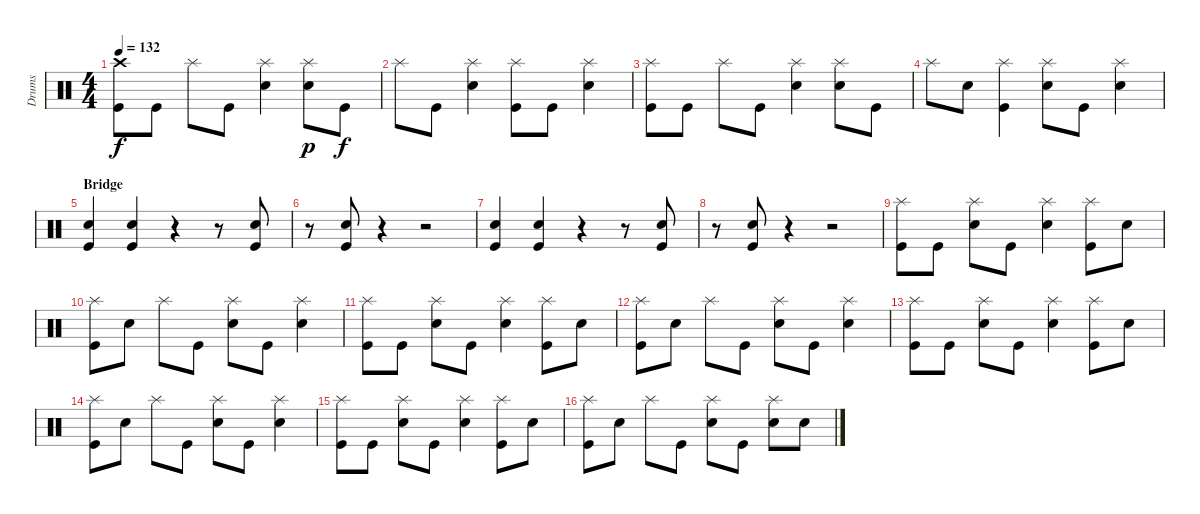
\track ("Drums" "Drums") {instrument percussion}
\staff {score}
\articulation defaults
\ts (4 4)
\tempo 132
\clef neutral
\ks c
("Crash high (hit)" "Kick (hit)").8{dy f} "Kick (hit)".8 "Splash (hit)".8 "Kick (hit)".8 ("Snare (hit) 2" "Splash (hit)").4 ("Snare (hit) 2" "Splash (hit)").8{dy p} "Kick (hit)".8{dy f} |
"Splash (hit)".8 "Kick (hit)".8 ("Snare (hit) 2" "Splash (hit)").4 ("Splash (hit)" "Kick (hit)").8 "Kick (hit)".8 ("Snare (hit) 2" "Splash (hit)").4 |
("Splash (hit)" "Kick (hit)").8 "Kick (hit)".8 "Splash (hit)".8 "Kick (hit)".8 ("Snare (hit) 2" "Splash (hit)").4 ("Snare (hit) 2" "Splash (hit)").8 "Kick (hit)".8 |
"Splash (hit)".8 "Snare (hit) 2".8 ("Splash (hit)" "Kick (hit)").4 ("Snare (hit) 2" "Splash (hit)").8 "Kick (hit)".8 ("Snare (hit) 2" "Splash (hit)").4 |
\section ("" "Bridge")
("Snare (hit) 2" "Kick (hit)").4 ("Snare (hit) 2" "Kick (hit)").4 r.4 r.8 ("Snare (hit) 2" "Kick (hit)").8 |
r.8 ("Snare (hit) 2" "Kick (hit)").8 r.4 r.2 |
("Snare (hit) 2" "Kick (hit)").4 ("Snare (hit) 2" "Kick (hit)").4 r.4 r.8 ("Snare (hit) 2" "Kick (hit)").8 |
r.8 ("Snare (hit) 2" "Kick (hit)").8 r.4 r.2 |
("Splash (hit)" "Kick (hit)").8 "Kick (hit)".8 ("Snare (hit) 2" "Splash (hit)").8 "Kick (hit)".8 ("Snare (hit) 2" "Splash (hit)").4 ("Splash (hit)" "Kick (hit)").8 "Snare (hit) 2".8 |
("Splash (hit)" "Kick (hit)").8 "Snare (hit) 2".8 "Splash (hit)".8 "Kick (hit)".8 ("Snare (hit) 2" "Splash (hit)").8 "Kick (hit)".8 ("Snare (hit) 2" "Splash (hit)").4 |
("Splash (hit)" "Kick (hit)").8 "Kick (hit)".8 ("Snare (hit) 2" "Splash (hit)").8 "Kick (hit)".8 ("Snare (hit) 2" "Splash (hit)").4 ("Splash (hit)" "Kick (hit)").8 "Snare (hit) 2".8 |
("Splash (hit)" "Kick (hit)").8 "Snare (hit) 2".8 "Splash (hit)".8 "Kick (hit)".8 ("Snare (hit) 2" "Splash (hit)").8 "Kick (hit)".8 ("Snare (hit) 2" "Splash (hit)").4 |
("Splash (hit)" "Kick (hit)").8 "Kick (hit)".8 ("Snare (hit) 2" "Splash (hit)").8 "Kick (hit)".8 ("Snare (hit) 2" "Splash (hit)").4 ("Splash (hit)" "Kick (hit)").8 "Snare (hit) 2".8 |
("Splash (hit)" "Kick (hit)").8 "Snare (hit) 2".8 "Splash (hit)".8 "Kick (hit)".8 ("Snare (hit) 2" "Splash (hit)").8 "Kick (hit)".8 ("Snare (hit) 2" "Splash (hit)").4 |
("Splash (hit)" "Kick (hit)").8 "Kick (hit)".8 ("Snare (hit) 2" "Splash (hit)").8 "Kick (hit)".8 ("Snare (hit) 2" "Splash (hit)").4 ("Splash (hit)" "Kick (hit)").8 "Snare (hit) 2".8 |
("Splash (hit)" "Kick (hit)").8 "Snare (hit) 2".8 "Splash (hit)".8 "Kick (hit)".8 ("Snare (hit) 2" "Splash (hit)").8 "Kick (hit)".8 ("Snare (hit) 2" "Splash (hit)").8 "Snare (hit) 2".8
